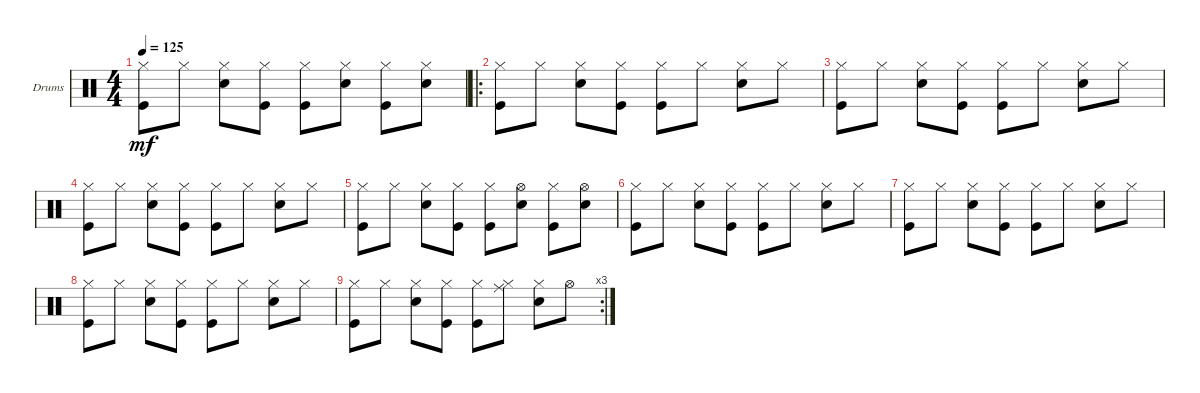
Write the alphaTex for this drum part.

\defaultSystemsLayout 4
\bracketExtendMode groupsimilarinstruments
\firstSystemTrackNameOrientation horizontal
\otherSystemsTrackNameOrientation horizontal
\track ("Drumkit" "Drums") {instrument percussion}
\staff {score}
\articulation defaults
\ts (4 4)
\tempo 125
\clef neutral
\ks c
("Hi-Hat (closed)" "Kick (hit)").8{dy mf} "Hi-Hat (closed)".8 ("Hi-Hat (closed)" "Snare (hit) 2").8 ("Hi-Hat (closed)" "Kick (hit)").8 ("Hi-Hat (closed)" "Kick (hit)").8 ("Hi-Hat (closed)" "Snare (hit) 2").8 ("Hi-Hat (closed)" "Kick (hit)").8 ("Hi-Hat (closed)" "Snare (hit) 2").8 |
\ro
("Hi-Hat (closed)" "Kick (hit)").8 "Hi-Hat (closed)".8 ("Hi-Hat (closed)" "Snare (hit) 2").8 ("Hi-Hat (closed)" "Kick (hit)").8 ("Hi-Hat (closed)" "Kick (hit)").8 "Hi-Hat (closed)".8 ("Hi-Hat (closed)" "Snare (hit) 2").8 "Hi-Hat (closed)".8 |
("Hi-Hat (closed)" "Kick (hit)").8 "Hi-Hat (closed)".8 ("Hi-Hat (closed)" "Snare (hit) 2").8 ("Hi-Hat (closed)" "Kick (hit)").8 ("Hi-Hat (closed)" "Kick (hit)").8 "Hi-Hat (closed)".8 ("Hi-Hat (closed)" "Snare (hit) 2").8 "Hi-Hat (closed)".8 |
("Hi-Hat (closed)" "Kick (hit)").8 "Hi-Hat (closed)".8 ("Hi-Hat (closed)" "Snare (hit) 2").8 ("Hi-Hat (closed)" "Kick (hit)").8 ("Hi-Hat (closed)" "Kick (hit)").8 "Hi-Hat (closed)".8 ("Hi-Hat (closed)" "Snare (hit) 2").8 "Hi-Hat (closed)".8 |
("Hi-Hat (closed)" "Kick (hit)").8 "Hi-Hat (closed)".8 ("Hi-Hat (closed)" "Snare (hit) 2").8 ("Hi-Hat (closed)" "Kick (hit)").8 ("Hi-Hat (closed)" "Kick (hit)").8 ("Hi-Hat (open)" "Snare (hit) 2").8 ("Hi-Hat (closed)" "Kick (hit)").8 ("Hi-Hat (open)" "Snare (hit) 2").8 |
("Hi-Hat (closed)" "Kick (hit)").8 "Hi-Hat (closed)".8 ("Hi-Hat (closed)" "Snare (hit) 2").8 ("Hi-Hat (closed)" "Kick (hit)").8 ("Hi-Hat (closed)" "Kick (hit)").8 "Hi-Hat (closed)".8 ("Hi-Hat (closed)" "Snare (hit) 2").8 "Hi-Hat (closed)".8 |
("Hi-Hat (closed)" "Kick (hit)").8 "Hi-Hat (closed)".8 ("Hi-Hat (closed)" "Snare (hit) 2").8 ("Hi-Hat (closed)" "Kick (hit)").8 ("Hi-Hat (closed)" "Kick (hit)").8 "Hi-Hat (closed)".8 ("Hi-Hat (closed)" "Snare (hit) 2").8 "Hi-Hat (closed)".8 |
("Hi-Hat (closed)" "Kick (hit)").8 "Hi-Hat (closed)".8 ("Hi-Hat (closed)" "Snare (hit) 2").8 ("Hi-Hat (closed)" "Kick (hit)").8 ("Hi-Hat (closed)" "Kick (hit)").8 "Hi-Hat (closed)".8 ("Hi-Hat (closed)" "Snare (hit) 2").8 "Hi-Hat (closed)".8 |
\rc 3
("Hi-Hat (closed)" "Kick (hit)").8 "Hi-Hat (closed)".8 ("Hi-Hat (closed)" "Snare (hit) 2").8 ("Hi-Hat (closed)" "Kick (hit)").8 ("Hi-Hat (closed)" "Kick (hit)").8 ("Hi-Hat (closed)" "Ride (middle)").8 ("Hi-Hat (closed)" "Snare (hit) 2").8 "Hi-Hat (open)".8
